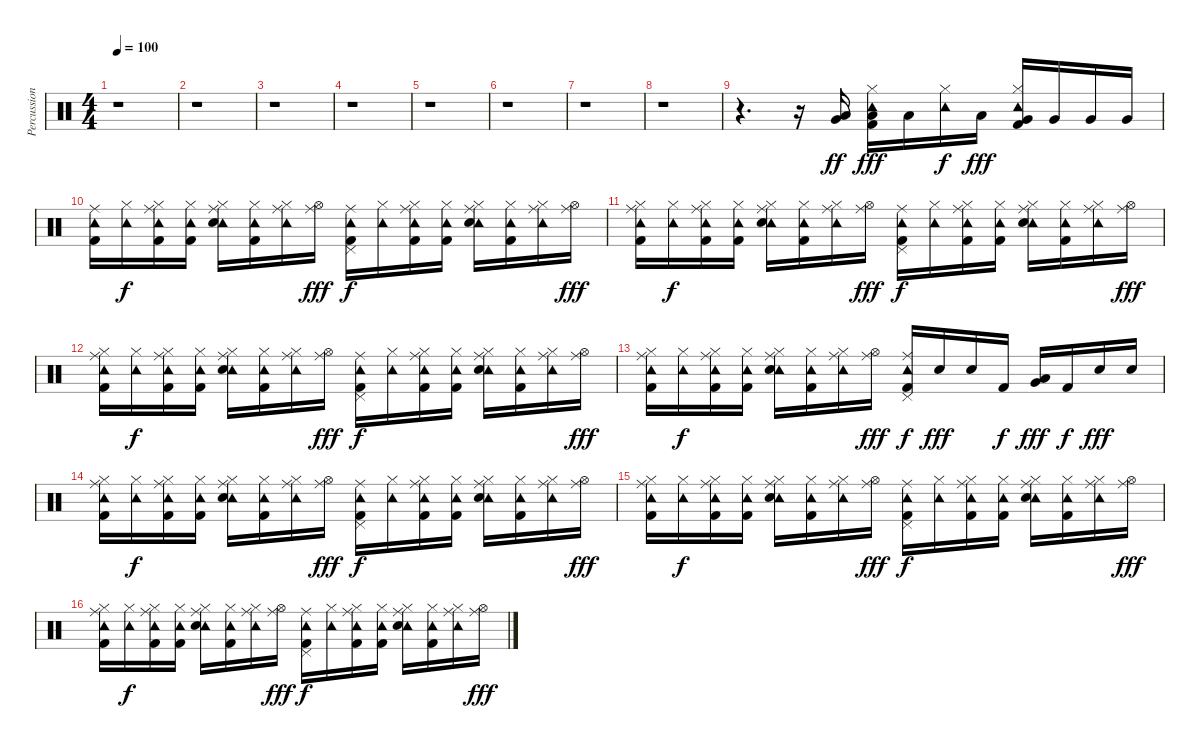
\track ("Percussion" "Percussion") {instrument percussion}
\staff {score}
\articulation defaults
\ts (4 4)
\tempo 100
\clef neutral
\ks c
r.1{dy ff} |
r.1 |
r.1 |
r.1 |
r.1 |
r.1 |
r.1 |
r.1 |
r.4{d} r.16 ("Low Tom (hit)" "Very Low Tom (hit)").16 ("Tambourine (hit)" "Hi-Hat (closed)" "Low Tom (hit)" "Kick (hit) 2").16{dy fff} "Low Tom (hit)".16 ("Tambourine (hit)" "Hi-Hat (closed)").16{dy f} "Low Tom (hit)".16{dy fff} ("Tambourine (hit)" "Hi-Hat (closed)" "Very Low Tom (hit)" "Kick (hit) 2").16 "Very Low Tom (hit)".16 "Very Low Tom (hit)".16 "Very Low Tom (hit)".16 |
("Tambourine (hit)" "Ride (middle)" "Kick (hit) 2").16 ("Tambourine (hit)" "Hi-Hat (closed)").16{dy f} ("Tambourine (hit)" "Ride (middle)" "Hi-Hat (closed)" "Kick (hit) 2").16 ("Tambourine (hit)" "Hi-Hat (closed)" "Kick (hit) 2").16 ("Tambourine (hit)" "Ride (middle)" "Hi-Hat (closed)" "Electric Snare (hit)").16 ("Tambourine (hit)" "Hi-Hat (closed)" "Kick (hit) 2").16 ("Tambourine (hit)" "Ride (middle)" "Hi-Hat (closed)").16 ("Ride (middle)" "Hi-Hat (open)").16{dy fff} ("Tambourine (hit)" "Ride (middle)" "Pedal Hi-Hat (hit)" "Kick (hit) 2").16{dy f} ("Tambourine (hit)" "Hi-Hat (closed)").16 ("Tambourine (hit)" "Ride (middle)" "Hi-Hat (closed)" "Kick (hit) 2").16 ("Tambourine (hit)" "Hi-Hat (closed)" "Kick (hit) 2").16 ("Tambourine (hit)" "Ride (middle)" "Hi-Hat (closed)" "Electric Snare (hit)").16 ("Tambourine (hit)" "Hi-Hat (closed)" "Kick (hit) 2").16 ("Tambourine (hit)" "Ride (middle)" "Hi-Hat (closed)").16 ("Ride (middle)" "Hi-Hat (open)").16{dy fff} |
("Tambourine (hit)" "Ride (middle)" "Hi-Hat (closed)" "Kick (hit) 2").16 ("Tambourine (hit)" "Hi-Hat (closed)").16{dy f} ("Tambourine (hit)" "Ride (middle)" "Hi-Hat (closed)" "Kick (hit) 2").16 ("Tambourine (hit)" "Hi-Hat (closed)" "Kick (hit) 2").16 ("Tambourine (hit)" "Ride (middle)" "Hi-Hat (closed)" "Electric Snare (hit)").16 ("Tambourine (hit)" "Hi-Hat (closed)" "Kick (hit) 2").16 ("Tambourine (hit)" "Ride (middle)" "Hi-Hat (closed)").16 ("Ride (middle)" "Hi-Hat (open)").16{dy fff} ("Tambourine (hit)" "Ride (middle)" "Pedal Hi-Hat (hit)" "Kick (hit) 2").16{dy f} ("Tambourine (hit)" "Hi-Hat (closed)").16 ("Tambourine (hit)" "Ride (middle)" "Hi-Hat (closed)" "Kick (hit) 2").16 ("Tambourine (hit)" "Hi-Hat (closed)" "Kick (hit) 2").16 ("Tambourine (hit)" "Ride (middle)" "Hi-Hat (closed)" "Electric Snare (hit)").16 ("Tambourine (hit)" "Hi-Hat (closed)" "Kick (hit) 2").16 ("Tambourine (hit)" "Ride (middle)" "Hi-Hat (closed)").16 ("Ride (middle)" "Hi-Hat (open)").16{dy fff} |
("Tambourine (hit)" "Ride (middle)" "Hi-Hat (closed)" "Kick (hit) 2").16 ("Tambourine (hit)" "Hi-Hat (closed)").16{dy f} ("Tambourine (hit)" "Ride (middle)" "Hi-Hat (closed)" "Kick (hit) 2").16 ("Tambourine (hit)" "Hi-Hat (closed)" "Kick (hit) 2").16 ("Tambourine (hit)" "Ride (middle)" "Hi-Hat (closed)" "Electric Snare (hit)").16 ("Tambourine (hit)" "Hi-Hat (closed)" "Kick (hit) 2").16 ("Tambourine (hit)" "Ride (middle)" "Hi-Hat (closed)").16 ("Ride (middle)" "Hi-Hat (open)").16{dy fff} ("Tambourine (hit)" "Ride (middle)" "Pedal Hi-Hat (hit)" "Kick (hit) 2").16{dy f} ("Tambourine (hit)" "Hi-Hat (closed)").16 ("Tambourine (hit)" "Ride (middle)" "Hi-Hat (closed)" "Kick (hit) 2").16 ("Tambourine (hit)" "Hi-Hat (closed)" "Kick (hit) 2").16 ("Tambourine (hit)" "Ride (middle)" "Hi-Hat (closed)" "Electric Snare (hit)").16 ("Tambourine (hit)" "Hi-Hat (closed)" "Kick (hit) 2").16 ("Tambourine (hit)" "Ride (middle)" "Hi-Hat (closed)").16 ("Ride (middle)" "Hi-Hat (open)").16{dy fff} |
("Tambourine (hit)" "Ride (middle)" "Hi-Hat (closed)" "Kick (hit) 2").16 ("Tambourine (hit)" "Hi-Hat (closed)").16{dy f} ("Tambourine (hit)" "Ride (middle)" "Hi-Hat (closed)" "Kick (hit) 2").16 ("Tambourine (hit)" "Hi-Hat (closed)" "Kick (hit) 2").16 ("Tambourine (hit)" "Ride (middle)" "Hi-Hat (closed)" "Electric Snare (hit)").16 ("Tambourine (hit)" "Hi-Hat (closed)" "Kick (hit) 2").16 ("Tambourine (hit)" "Ride (middle)" "Hi-Hat (closed)").16 ("Ride (middle)" "Hi-Hat (open)").16{dy fff} ("Tambourine (hit)" "Ride (middle)" "Pedal Hi-Hat (hit)" "Kick (hit) 2").16{dy f} "Electric Snare (hit)".16{dy fff} "Electric Snare (hit)".16 "Kick (hit) 2".16{dy f} ("Low Tom (hit)" "Very Low Tom (hit)").16{dy fff} "Kick (hit) 2".16{dy f} "Electric Snare (hit)".16{dy fff} "Electric Snare (hit)".16 |
("Tambourine (hit)" "Ride (middle)" "Hi-Hat (closed)" "Kick (hit) 2").16 ("Tambourine (hit)" "Hi-Hat (closed)").16{dy f} ("Tambourine (hit)" "Ride (middle)" "Hi-Hat (closed)" "Kick (hit) 2").16 ("Tambourine (hit)" "Hi-Hat (closed)" "Kick (hit) 2").16 ("Tambourine (hit)" "Ride (middle)" "Hi-Hat (closed)" "Electric Snare (hit)").16 ("Tambourine (hit)" "Hi-Hat (closed)" "Kick (hit) 2").16 ("Tambourine (hit)" "Ride (middle)" "Hi-Hat (closed)").16 ("Ride (middle)" "Hi-Hat (open)").16{dy fff} ("Tambourine (hit)" "Ride (middle)" "Pedal Hi-Hat (hit)" "Kick (hit) 2").16{dy f} ("Tambourine (hit)" "Hi-Hat (closed)").16 ("Tambourine (hit)" "Ride (middle)" "Hi-Hat (closed)" "Kick (hit) 2").16 ("Tambourine (hit)" "Hi-Hat (closed)" "Kick (hit) 2").16 ("Tambourine (hit)" "Ride (middle)" "Hi-Hat (closed)" "Electric Snare (hit)").16 ("Tambourine (hit)" "Hi-Hat (closed)" "Kick (hit) 2").16 ("Tambourine (hit)" "Ride (middle)" "Hi-Hat (closed)").16 ("Ride (middle)" "Hi-Hat (open)").16{dy fff} |
("Tambourine (hit)" "Ride (middle)" "Hi-Hat (closed)" "Kick (hit) 2").16 ("Tambourine (hit)" "Hi-Hat (closed)").16{dy f} ("Tambourine (hit)" "Ride (middle)" "Hi-Hat (closed)" "Kick (hit) 2").16 ("Tambourine (hit)" "Hi-Hat (closed)" "Kick (hit) 2").16 ("Tambourine (hit)" "Ride (middle)" "Hi-Hat (closed)" "Electric Snare (hit)").16 ("Tambourine (hit)" "Hi-Hat (closed)" "Kick (hit) 2").16 ("Tambourine (hit)" "Ride (middle)" "Hi-Hat (closed)").16 ("Ride (middle)" "Hi-Hat (open)").16{dy fff} ("Tambourine (hit)" "Ride (middle)" "Pedal Hi-Hat (hit)" "Kick (hit) 2").16{dy f} ("Tambourine (hit)" "Hi-Hat (closed)").16 ("Tambourine (hit)" "Ride (middle)" "Hi-Hat (closed)" "Kick (hit) 2").16 ("Tambourine (hit)" "Hi-Hat (closed)" "Kick (hit) 2").16 ("Tambourine (hit)" "Ride (middle)" "Hi-Hat (closed)" "Electric Snare (hit)").16 ("Tambourine (hit)" "Hi-Hat (closed)" "Kick (hit) 2").16 ("Tambourine (hit)" "Ride (middle)" "Hi-Hat (closed)").16 ("Ride (middle)" "Hi-Hat (open)").16{dy fff} |
("Tambourine (hit)" "Ride (middle)" "Hi-Hat (closed)" "Kick (hit) 2").16 ("Tambourine (hit)" "Hi-Hat (closed)").16{dy f} ("Tambourine (hit)" "Ride (middle)" "Hi-Hat (closed)" "Kick (hit) 2").16 ("Tambourine (hit)" "Hi-Hat (closed)" "Kick (hit) 2").16 ("Tambourine (hit)" "Ride (middle)" "Hi-Hat (closed)" "Electric Snare (hit)").16 ("Tambourine (hit)" "Hi-Hat (closed)" "Kick (hit) 2").16 ("Tambourine (hit)" "Ride (middle)" "Hi-Hat (closed)").16 ("Ride (middle)" "Hi-Hat (open)").16{dy fff} ("Tambourine (hit)" "Ride (middle)" "Pedal Hi-Hat (hit)" "Kick (hit) 2").16{dy f} ("Tambourine (hit)" "Hi-Hat (closed)").16 ("Tambourine (hit)" "Ride (middle)" "Hi-Hat (closed)" "Kick (hit) 2").16 ("Tambourine (hit)" "Hi-Hat (closed)" "Kick (hit) 2").16 ("Tambourine (hit)" "Ride (middle)" "Hi-Hat (closed)" "Electric Snare (hit)").16 ("Tambourine (hit)" "Hi-Hat (closed)" "Kick (hit) 2").16 ("Tambourine (hit)" "Ride (middle)" "Hi-Hat (closed)").16 ("Ride (middle)" "Hi-Hat (open)").16{dy fff}
